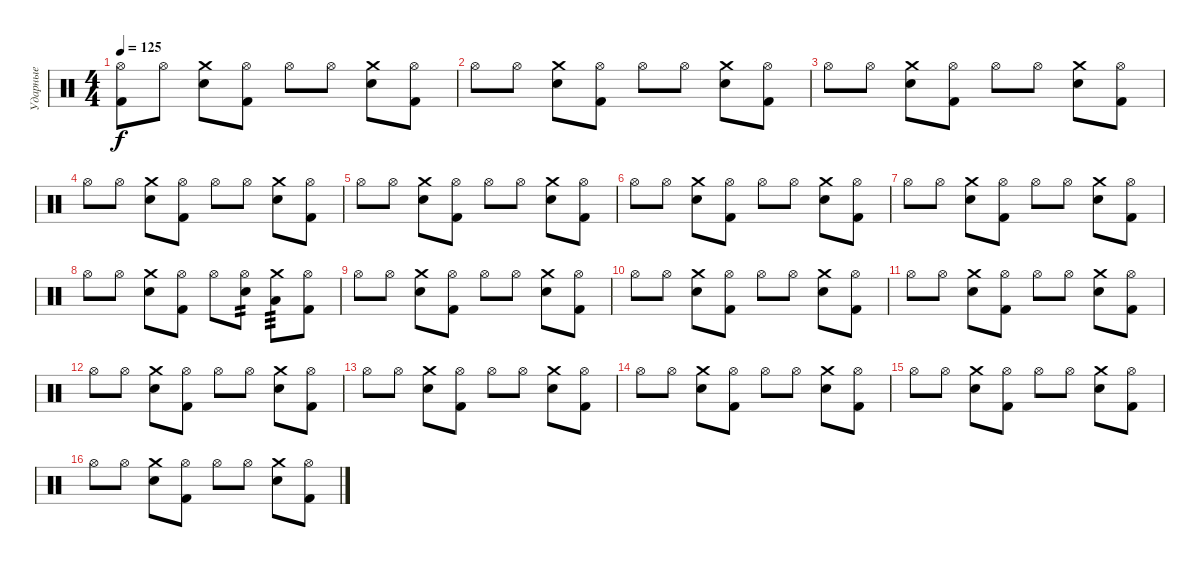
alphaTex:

\track ("Ударные" "Ударные") {instrument percussion}
\staff {score}
\articulation defaults
\ts (4 4)
\tempo 125
\clef neutral
\ks c
("Hi-Hat (open)" "Kick (hit) 2").8{dy f} "Hi-Hat (open)".8 ("Crash medium (hit)" "Electric Snare (hit)").8 ("Hi-Hat (open)" "Kick (hit) 2").8 "Hi-Hat (open)".8 "Hi-Hat (open)".8 ("Crash medium (hit)" "Electric Snare (hit)").8 ("Hi-Hat (open)" "Kick (hit) 2").8 |
"Hi-Hat (open)".8 "Hi-Hat (open)".8 ("Crash medium (hit)" "Electric Snare (hit)").8 ("Hi-Hat (open)" "Kick (hit) 2").8 "Hi-Hat (open)".8 "Hi-Hat (open)".8 ("Crash medium (hit)" "Electric Snare (hit)").8 ("Hi-Hat (open)" "Kick (hit) 2").8 |
"Hi-Hat (open)".8 "Hi-Hat (open)".8 ("Crash medium (hit)" "Electric Snare (hit)").8 ("Hi-Hat (open)" "Kick (hit) 2").8 "Hi-Hat (open)".8 "Hi-Hat (open)".8 ("Crash medium (hit)" "Electric Snare (hit)").8 ("Hi-Hat (open)" "Kick (hit) 2").8 |
"Hi-Hat (open)".8 "Hi-Hat (open)".8 ("Crash medium (hit)" "Electric Snare (hit)").8 ("Hi-Hat (open)" "Kick (hit) 2").8 "Hi-Hat (open)".8 "Hi-Hat (open)".8 ("Crash medium (hit)" "Electric Snare (hit)").8 ("Hi-Hat (open)" "Kick (hit) 2").8 |
"Hi-Hat (open)".8 "Hi-Hat (open)".8 ("Crash medium (hit)" "Electric Snare (hit)").8 ("Hi-Hat (open)" "Kick (hit) 2").8 "Hi-Hat (open)".8 "Hi-Hat (open)".8 ("Crash medium (hit)" "Electric Snare (hit)").8 ("Hi-Hat (open)" "Kick (hit) 2").8 |
"Hi-Hat (open)".8 "Hi-Hat (open)".8 ("Crash medium (hit)" "Electric Snare (hit)").8 ("Hi-Hat (open)" "Kick (hit) 2").8 "Hi-Hat (open)".8 "Hi-Hat (open)".8 ("Crash medium (hit)" "Electric Snare (hit)").8 ("Hi-Hat (open)" "Kick (hit) 2").8 |
"Hi-Hat (open)".8 "Hi-Hat (open)".8 ("Crash medium (hit)" "Electric Snare (hit)").8 ("Hi-Hat (open)" "Kick (hit) 2").8 "Hi-Hat (open)".8 "Hi-Hat (open)".8 ("Crash medium (hit)" "Electric Snare (hit)").8 ("Hi-Hat (open)" "Kick (hit) 2").8 |
"Hi-Hat (open)".8 "Hi-Hat (open)".8 ("Crash medium (hit)" "Electric Snare (hit)").8 ("Hi-Hat (open)" "Kick (hit) 2").8 "Hi-Hat (open)".8 ("Hi-Hat (open)" "Electric Snare (hit)").8{tp 2} ("Crash medium (hit)" "Low Tom (hit)").8{tp 3} ("Hi-Hat (open)" "Kick (hit) 2").8 |
"Hi-Hat (open)".8 "Hi-Hat (open)".8 ("Crash medium (hit)" "Electric Snare (hit)").8 ("Hi-Hat (open)" "Kick (hit) 2").8 "Hi-Hat (open)".8 "Hi-Hat (open)".8 ("Crash medium (hit)" "Electric Snare (hit)").8 ("Hi-Hat (open)" "Kick (hit) 2").8 |
"Hi-Hat (open)".8 "Hi-Hat (open)".8 ("Crash medium (hit)" "Electric Snare (hit)").8 ("Hi-Hat (open)" "Kick (hit) 2").8 "Hi-Hat (open)".8 "Hi-Hat (open)".8 ("Crash medium (hit)" "Electric Snare (hit)").8 ("Hi-Hat (open)" "Kick (hit) 2").8 |
"Hi-Hat (open)".8 "Hi-Hat (open)".8 ("Crash medium (hit)" "Electric Snare (hit)").8 ("Hi-Hat (open)" "Kick (hit) 2").8 "Hi-Hat (open)".8 "Hi-Hat (open)".8 ("Crash medium (hit)" "Electric Snare (hit)").8 ("Hi-Hat (open)" "Kick (hit) 2").8 |
"Hi-Hat (open)".8 "Hi-Hat (open)".8 ("Crash medium (hit)" "Electric Snare (hit)").8 ("Hi-Hat (open)" "Kick (hit) 2").8 "Hi-Hat (open)".8 "Hi-Hat (open)".8 ("Crash medium (hit)" "Electric Snare (hit)").8 ("Hi-Hat (open)" "Kick (hit) 2").8 |
"Hi-Hat (open)".8 "Hi-Hat (open)".8 ("Crash medium (hit)" "Electric Snare (hit)").8 ("Hi-Hat (open)" "Kick (hit) 2").8 "Hi-Hat (open)".8 "Hi-Hat (open)".8 ("Crash medium (hit)" "Electric Snare (hit)").8 ("Hi-Hat (open)" "Kick (hit) 2").8 |
"Hi-Hat (open)".8 "Hi-Hat (open)".8 ("Crash medium (hit)" "Electric Snare (hit)").8 ("Hi-Hat (open)" "Kick (hit) 2").8 "Hi-Hat (open)".8 "Hi-Hat (open)".8 ("Crash medium (hit)" "Electric Snare (hit)").8 ("Hi-Hat (open)" "Kick (hit) 2").8 |
"Hi-Hat (open)".8 "Hi-Hat (open)".8 ("Crash medium (hit)" "Electric Snare (hit)").8 ("Hi-Hat (open)" "Kick (hit) 2").8 "Hi-Hat (open)".8 "Hi-Hat (open)".8 ("Crash medium (hit)" "Electric Snare (hit)").8 ("Hi-Hat (open)" "Kick (hit) 2").8 |
"Hi-Hat (open)".8 "Hi-Hat (open)".8 ("Crash medium (hit)" "Electric Snare (hit)").8 ("Hi-Hat (open)" "Kick (hit) 2").8 "Hi-Hat (open)".8 "Hi-Hat (open)".8 ("Crash medium (hit)" "Electric Snare (hit)").8 ("Hi-Hat (open)" "Kick (hit) 2").8
